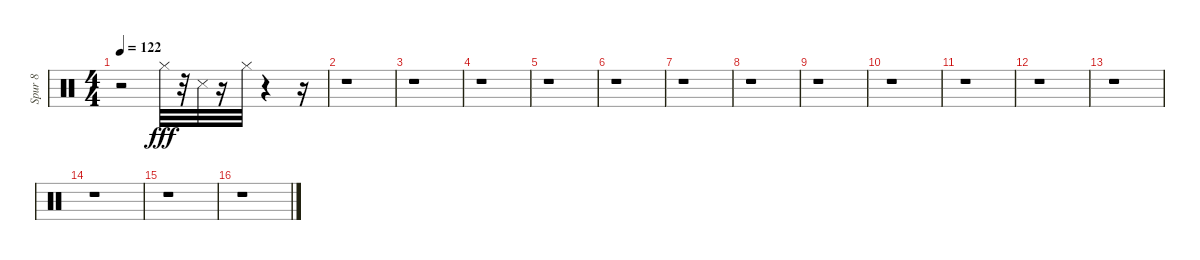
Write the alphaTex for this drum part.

\track ("Spur 8" "Spur 8") {instrument percussion}
\staff {score}
\articulation defaults
\ts (4 4)
\tempo 122
\clef neutral
\ks c
r.2{dy f} "Hi-Hat (closed)".32{dy fff} r.32 "Snare (side stick) 3".32 r.16 "Hi-Hat (closed)".32 r.4 r.16 |
r.1 |
r.1 |
r.1 |
r.1 |
r.1 |
r.1 |
r.1 |
r.1 |
r.1 |
r.1 |
r.1 |
r.1 |
r.1 |
r.1 |
r.1
